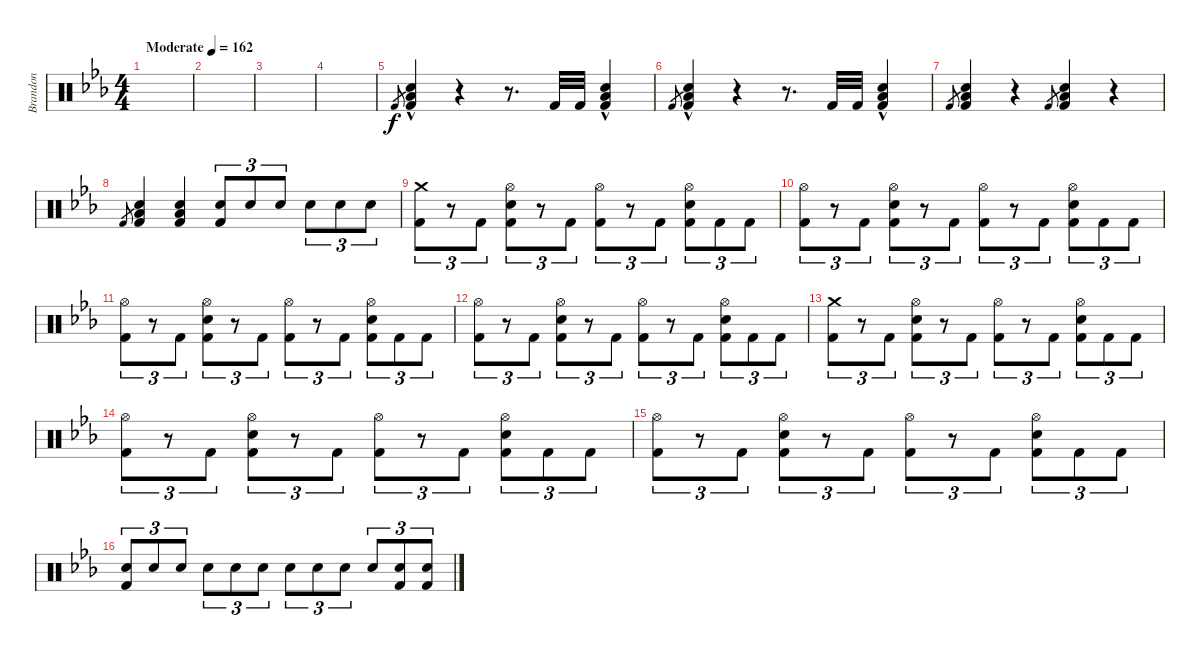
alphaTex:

\track ("Brandon" "Brandon") {instrument percussion}
\staff {score}
\articulation defaults
\ts (4 4)
\tempo (162 "Moderate")
\clef neutral
\ks cminor
|
|
|
|
"Kick (hit) 2".8{gr} ("Electric Snare (hit)"{hac} "Low Floor Tom (hit)" "Kick (hit) 2").4 r.4 r.8{d} "Kick (hit) 2".32 "Kick (hit) 2".32 ("Electric Snare (hit)"{hac} "Low Floor Tom (hit)" "Kick (hit) 2").4 |
"Kick (hit) 2".8{gr} ("Electric Snare (hit)"{hac} "Low Floor Tom (hit)" "Kick (hit) 2").4 r.4 r.8{d} "Kick (hit) 2".32 "Kick (hit) 2".32 ("Electric Snare (hit)"{hac} "Low Floor Tom (hit)" "Kick (hit) 2").4 |
"Kick (hit) 2".8{gr} ("Electric Snare (hit)" "Low Floor Tom (hit)" "Kick (hit) 2").4 r.4 "Kick (hit) 2".8{gr} ("Electric Snare (hit)" "Low Floor Tom (hit)" "Kick (hit) 2").4 r.4 |
"Kick (hit) 2".8{gr} ("Electric Snare (hit)" "Low Floor Tom (hit)" "Kick (hit) 2").4 ("Electric Snare (hit)" "Low Floor Tom (hit)" "Kick (hit) 2").4 ("Electric Snare (hit)" "Kick (hit) 2").8{tu (3 2)} "Electric Snare (hit)".8{tu (3 2)} "Electric Snare (hit)".8{tu (3 2)} "Electric Snare (hit)".8{tu (3 2)} "Electric Snare (hit)".8{tu (3 2)} "Electric Snare (hit)".8{tu (3 2)} |
("Crash medium (hit)" "Kick (hit) 2").8{tu (3 2)} r.8{tu (3 2)} "Kick (hit) 2".8{tu (3 2)} ("Hi-Hat (open)" "Electric Snare (hit)" "Kick (hit) 2").8{tu (3 2)} r.8{tu (3 2)} "Kick (hit) 2".8{tu (3 2)} ("Hi-Hat (open)" "Kick (hit) 2").8{tu (3 2)} r.8{tu (3 2)} "Kick (hit) 2".8{tu (3 2)} ("Hi-Hat (open)" "Electric Snare (hit)" "Kick (hit) 2").8{tu (3 2)} "Kick (hit) 2".8{tu (3 2)} "Kick (hit) 2".8{tu (3 2)} |
("Hi-Hat (open)" "Kick (hit) 2").8{tu (3 2)} r.8{tu (3 2)} "Kick (hit) 2".8{tu (3 2)} ("Hi-Hat (open)" "Electric Snare (hit)" "Kick (hit) 2").8{tu (3 2)} r.8{tu (3 2)} "Kick (hit) 2".8{tu (3 2)} ("Hi-Hat (open)" "Kick (hit) 2").8{tu (3 2)} r.8{tu (3 2)} "Kick (hit) 2".8{tu (3 2)} ("Hi-Hat (open)" "Electric Snare (hit)" "Kick (hit) 2").8{tu (3 2)} "Kick (hit) 2".8{tu (3 2)} "Kick (hit) 2".8{tu (3 2)} |
("Hi-Hat (open)" "Kick (hit) 2").8{tu (3 2)} r.8{tu (3 2)} "Kick (hit) 2".8{tu (3 2)} ("Hi-Hat (open)" "Electric Snare (hit)" "Kick (hit) 2").8{tu (3 2)} r.8{tu (3 2)} "Kick (hit) 2".8{tu (3 2)} ("Hi-Hat (open)" "Kick (hit) 2").8{tu (3 2)} r.8{tu (3 2)} "Kick (hit) 2".8{tu (3 2)} ("Hi-Hat (open)" "Electric Snare (hit)" "Kick (hit) 2").8{tu (3 2)} "Kick (hit) 2".8{tu (3 2)} "Kick (hit) 2".8{tu (3 2)} |
("Hi-Hat (open)" "Kick (hit) 2").8{tu (3 2)} r.8{tu (3 2)} "Kick (hit) 2".8{tu (3 2)} ("Hi-Hat (open)" "Electric Snare (hit)" "Kick (hit) 2").8{tu (3 2)} r.8{tu (3 2)} "Kick (hit) 2".8{tu (3 2)} ("Hi-Hat (open)" "Kick (hit) 2").8{tu (3 2)} r.8{tu (3 2)} "Kick (hit) 2".8{tu (3 2)} ("Hi-Hat (open)" "Electric Snare (hit)" "Kick (hit) 2").8{tu (3 2)} "Kick (hit) 2".8{tu (3 2)} "Kick (hit) 2".8{tu (3 2)} |
("Crash medium (hit)" "Kick (hit) 2").8{tu (3 2)} r.8{tu (3 2)} "Kick (hit) 2".8{tu (3 2)} ("Hi-Hat (open)" "Electric Snare (hit)" "Kick (hit) 2").8{tu (3 2)} r.8{tu (3 2)} "Kick (hit) 2".8{tu (3 2)} ("Hi-Hat (open)" "Kick (hit) 2").8{tu (3 2)} r.8{tu (3 2)} "Kick (hit) 2".8{tu (3 2)} ("Hi-Hat (open)" "Electric Snare (hit)" "Kick (hit) 2").8{tu (3 2)} "Kick (hit) 2".8{tu (3 2)} "Kick (hit) 2".8{tu (3 2)} |
("Hi-Hat (open)" "Kick (hit) 2").8{tu (3 2)} r.8{tu (3 2)} "Kick (hit) 2".8{tu (3 2)} ("Hi-Hat (open)" "Electric Snare (hit)" "Kick (hit) 2").8{tu (3 2)} r.8{tu (3 2)} "Kick (hit) 2".8{tu (3 2)} ("Hi-Hat (open)" "Kick (hit) 2").8{tu (3 2)} r.8{tu (3 2)} "Kick (hit) 2".8{tu (3 2)} ("Hi-Hat (open)" "Electric Snare (hit)" "Kick (hit) 2").8{tu (3 2)} "Kick (hit) 2".8{tu (3 2)} "Kick (hit) 2".8{tu (3 2)} |
("Hi-Hat (open)" "Kick (hit) 2").8{tu (3 2)} r.8{tu (3 2)} "Kick (hit) 2".8{tu (3 2)} ("Hi-Hat (open)" "Electric Snare (hit)" "Kick (hit) 2").8{tu (3 2)} r.8{tu (3 2)} "Kick (hit) 2".8{tu (3 2)} ("Hi-Hat (open)" "Kick (hit) 2").8{tu (3 2)} r.8{tu (3 2)} "Kick (hit) 2".8{tu (3 2)} ("Hi-Hat (open)" "Electric Snare (hit)" "Kick (hit) 2").8{tu (3 2)} "Kick (hit) 2".8{tu (3 2)} "Kick (hit) 2".8{tu (3 2)} |
("Electric Snare (hit)" "Kick (hit) 2").8{tu (3 2)} "Electric Snare (hit)".8{tu (3 2)} "Electric Snare (hit)".8{tu (3 2)} "Electric Snare (hit)".8{tu (3 2)} "Electric Snare (hit)".8{tu (3 2)} "Electric Snare (hit)".8{tu (3 2)} "Electric Snare (hit)".8{tu (3 2)} "Electric Snare (hit)".8{tu (3 2)} "Electric Snare (hit)".8{tu (3 2)} "Electric Snare (hit)".8{tu (3 2)} ("Electric Snare (hit)" "Kick (hit) 2").8{tu (3 2)} ("Electric Snare (hit)" "Kick (hit) 2").8{tu (3 2)}
